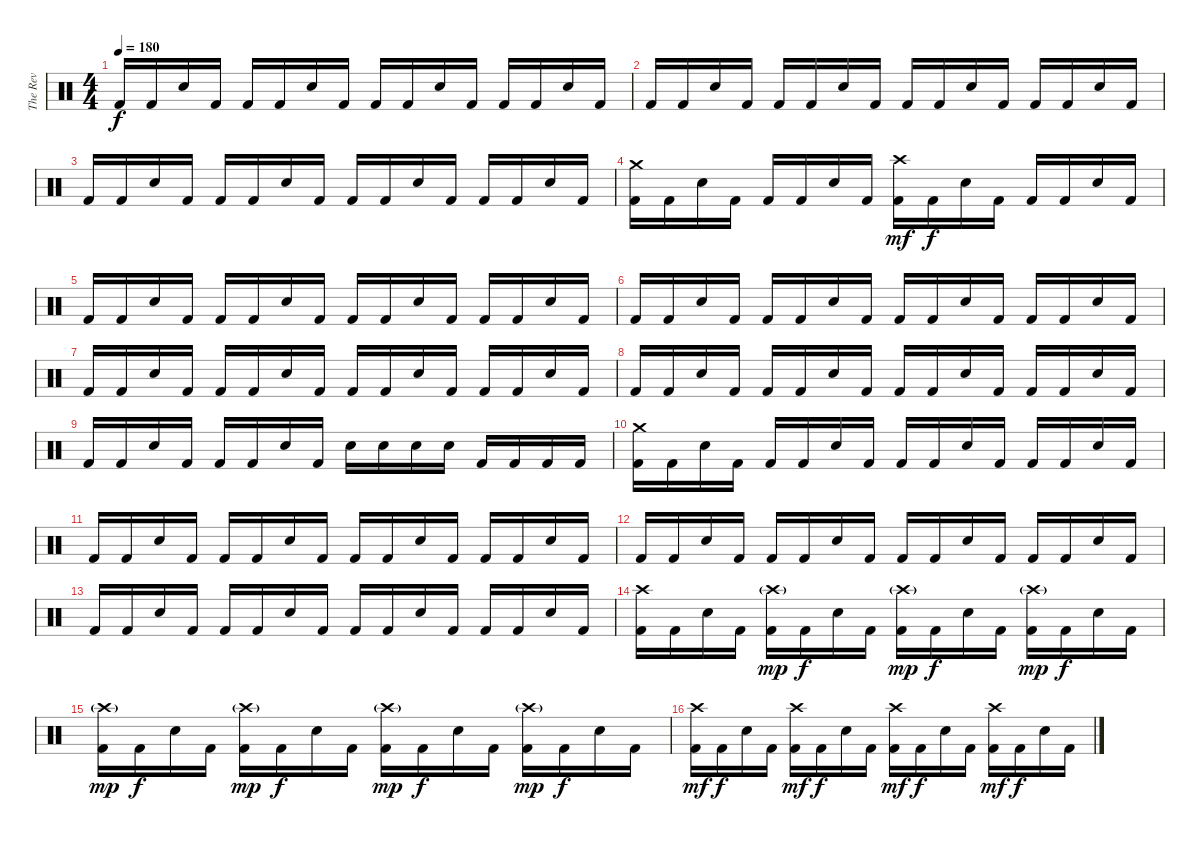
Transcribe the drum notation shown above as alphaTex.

\track ("The Rev" "The Rev") {instrument percussion}
\staff {score}
\articulation defaults
\ts (4 4)
\tempo 180
\clef neutral
\ks c "Kick (hit) 2".16{dy f} "Kick (hit) 2".16 "Snare (hit) 2".16 "Kick (hit) 2".16 "Kick (hit) 2".16 "Kick (hit) 2".16 "Snare (hit) 2".16 "Kick (hit) 2".16 "Kick (hit) 2".16 "Kick (hit) 2".16 "Snare (hit) 2".16 "Kick (hit) 2".16 "Kick (hit) 2".16 "Kick (hit) 2".16 "Snare (hit) 2".16 "Kick (hit) 2".16
|
"Kick (hit) 2".16 "Kick (hit) 2".16 "Snare (hit) 2".16 "Kick (hit) 2".16 "Kick (hit) 2".16 "Kick (hit) 2".16 "Snare (hit) 2".16 "Kick (hit) 2".16 "Kick (hit) 2".16 "Kick (hit) 2".16 "Snare (hit) 2".16 "Kick (hit) 2".16 "Kick (hit) 2".16 "Kick (hit) 2".16 "Snare (hit) 2".16 "Kick (hit) 2".16 |
"Kick (hit) 2".16 "Kick (hit) 2".16 "Snare (hit) 2".16 "Kick (hit) 2".16 "Kick (hit) 2".16 "Kick (hit) 2".16 "Snare (hit) 2".16 "Kick (hit) 2".16 "Kick (hit) 2".16 "Kick (hit) 2".16 "Snare (hit) 2".16 "Kick (hit) 2".16 "Kick (hit) 2".16 "Kick (hit) 2".16 "Snare (hit) 2".16 "Kick (hit) 2".16 |
("Crash medium (hit)" "Kick (hit) 2").16 "Kick (hit) 2".16 "Snare (hit) 2".16 "Kick (hit) 2".16 "Kick (hit) 2".16 "Kick (hit) 2".16 "Snare (hit) 2".16 "Kick (hit) 2".16 ("Crash high (hit)" "Kick (hit) 2").16{dy mf} "Kick (hit) 2".16{dy f} "Snare (hit) 2".16 "Kick (hit) 2".16 "Kick (hit) 2".16 "Kick (hit) 2".16 "Snare (hit) 2".16 "Kick (hit) 2".16 |
"Kick (hit) 2".16 "Kick (hit) 2".16 "Snare (hit) 2".16 "Kick (hit) 2".16 "Kick (hit) 2".16 "Kick (hit) 2".16 "Snare (hit) 2".16 "Kick (hit) 2".16 "Kick (hit) 2".16 "Kick (hit) 2".16 "Snare (hit) 2".16 "Kick (hit) 2".16 "Kick (hit) 2".16 "Kick (hit) 2".16 "Snare (hit) 2".16 "Kick (hit) 2".16 |
"Kick (hit) 2".16 "Kick (hit) 2".16 "Snare (hit) 2".16 "Kick (hit) 2".16 "Kick (hit) 2".16 "Kick (hit) 2".16 "Snare (hit) 2".16 "Kick (hit) 2".16 "Kick (hit) 2".16 "Kick (hit) 2".16 "Snare (hit) 2".16 "Kick (hit) 2".16 "Kick (hit) 2".16 "Kick (hit) 2".16 "Snare (hit) 2".16 "Kick (hit) 2".16 |
"Kick (hit) 2".16 "Kick (hit) 2".16 "Snare (hit) 2".16 "Kick (hit) 2".16 "Kick (hit) 2".16 "Kick (hit) 2".16 "Snare (hit) 2".16 "Kick (hit) 2".16 "Kick (hit) 2".16 "Kick (hit) 2".16 "Snare (hit) 2".16 "Kick (hit) 2".16 "Kick (hit) 2".16 "Kick (hit) 2".16 "Snare (hit) 2".16 "Kick (hit) 2".16 |
"Kick (hit) 2".16 "Kick (hit) 2".16 "Snare (hit) 2".16 "Kick (hit) 2".16 "Kick (hit) 2".16 "Kick (hit) 2".16 "Snare (hit) 2".16 "Kick (hit) 2".16 "Kick (hit) 2".16 "Kick (hit) 2".16 "Snare (hit) 2".16 "Kick (hit) 2".16 "Kick (hit) 2".16 "Kick (hit) 2".16 "Snare (hit) 2".16 "Kick (hit) 2".16 |
"Kick (hit) 2".16 "Kick (hit) 2".16 "Snare (hit) 2".16 "Kick (hit) 2".16 "Kick (hit) 2".16 "Kick (hit) 2".16 "Snare (hit) 2".16 "Kick (hit) 2".16 "Snare (hit) 2".16 "Snare (hit) 2".16 "Snare (hit) 2".16 "Snare (hit) 2".16 "Kick (hit) 2".16 "Kick (hit) 2".16 "Kick (hit) 2".16 "Kick (hit) 2".16 |
("Crash medium (hit)" "Kick (hit) 2").16 "Kick (hit) 2".16 "Snare (hit) 2".16 "Kick (hit) 2".16 "Kick (hit) 2".16 "Kick (hit) 2".16 "Snare (hit) 2".16 "Kick (hit) 2".16 "Kick (hit) 2".16 "Kick (hit) 2".16 "Snare (hit) 2".16 "Kick (hit) 2".16 "Kick (hit) 2".16 "Kick (hit) 2".16 "Snare (hit) 2".16 "Kick (hit) 2".16 |
"Kick (hit) 2".16 "Kick (hit) 2".16 "Snare (hit) 2".16 "Kick (hit) 2".16 "Kick (hit) 2".16 "Kick (hit) 2".16 "Snare (hit) 2".16 "Kick (hit) 2".16 "Kick (hit) 2".16 "Kick (hit) 2".16 "Snare (hit) 2".16 "Kick (hit) 2".16 "Kick (hit) 2".16 "Kick (hit) 2".16 "Snare (hit) 2".16 "Kick (hit) 2".16 |
"Kick (hit) 2".16 "Kick (hit) 2".16 "Snare (hit) 2".16 "Kick (hit) 2".16 "Kick (hit) 2".16 "Kick (hit) 2".16 "Snare (hit) 2".16 "Kick (hit) 2".16 "Kick (hit) 2".16 "Kick (hit) 2".16 "Snare (hit) 2".16 "Kick (hit) 2".16 "Kick (hit) 2".16 "Kick (hit) 2".16 "Snare (hit) 2".16 "Kick (hit) 2".16 |
"Kick (hit) 2".16 "Kick (hit) 2".16 "Snare (hit) 2".16 "Kick (hit) 2".16 "Kick (hit) 2".16 "Kick (hit) 2".16 "Snare (hit) 2".16 "Kick (hit) 2".16 "Kick (hit) 2".16 "Kick (hit) 2".16 "Snare (hit) 2".16 "Kick (hit) 2".16 "Kick (hit) 2".16 "Kick (hit) 2".16 "Snare (hit) 2".16 "Kick (hit) 2".16 |
("Crash high (hit)" "Kick (hit) 2").16 "Kick (hit) 2".16 "Snare (hit) 2".16 "Kick (hit) 2".16 ("Crash high (hit)"{g} "Kick (hit) 2").16{dy mp} "Kick (hit) 2".16{dy f} "Snare (hit) 2".16 "Kick (hit) 2".16 ("Crash high (hit)"{g} "Kick (hit) 2").16{dy mp} "Kick (hit) 2".16{dy f} "Snare (hit) 2".16 "Kick (hit) 2".16 ("Crash high (hit)"{g} "Kick (hit) 2").16{dy mp} "Kick (hit) 2".16{dy f} "Snare (hit) 2".16 "Kick (hit) 2".16 |
("Crash high (hit)"{g} "Kick (hit) 2").16{dy mp} "Kick (hit) 2".16{dy f} "Snare (hit) 2".16 "Kick (hit) 2".16 ("Crash high (hit)"{g} "Kick (hit) 2").16{dy mp} "Kick (hit) 2".16{dy f} "Snare (hit) 2".16 "Kick (hit) 2".16 ("Crash high (hit)"{g} "Kick (hit) 2").16{dy mp} "Kick (hit) 2".16{dy f} "Snare (hit) 2".16 "Kick (hit) 2".16 ("Crash high (hit)"{g} "Kick (hit) 2").16{dy mp} "Kick (hit) 2".16{dy f} "Snare (hit) 2".16 "Kick (hit) 2".16 |
("Crash high (hit)" "Kick (hit) 2").16{dy mf} "Kick (hit) 2".16{dy f} "Snare (hit) 2".16 "Kick (hit) 2".16 ("Crash high (hit)" "Kick (hit) 2").16{dy mf} "Kick (hit) 2".16{dy f} "Snare (hit) 2".16 "Kick (hit) 2".16 ("Crash high (hit)" "Kick (hit) 2").16{dy mf} "Kick (hit) 2".16{dy f} "Snare (hit) 2".16 "Kick (hit) 2".16 ("Crash high (hit)" "Kick (hit) 2").16{dy mf} "Kick (hit) 2".16{dy f} "Snare (hit) 2".16 "Kick (hit) 2".16
